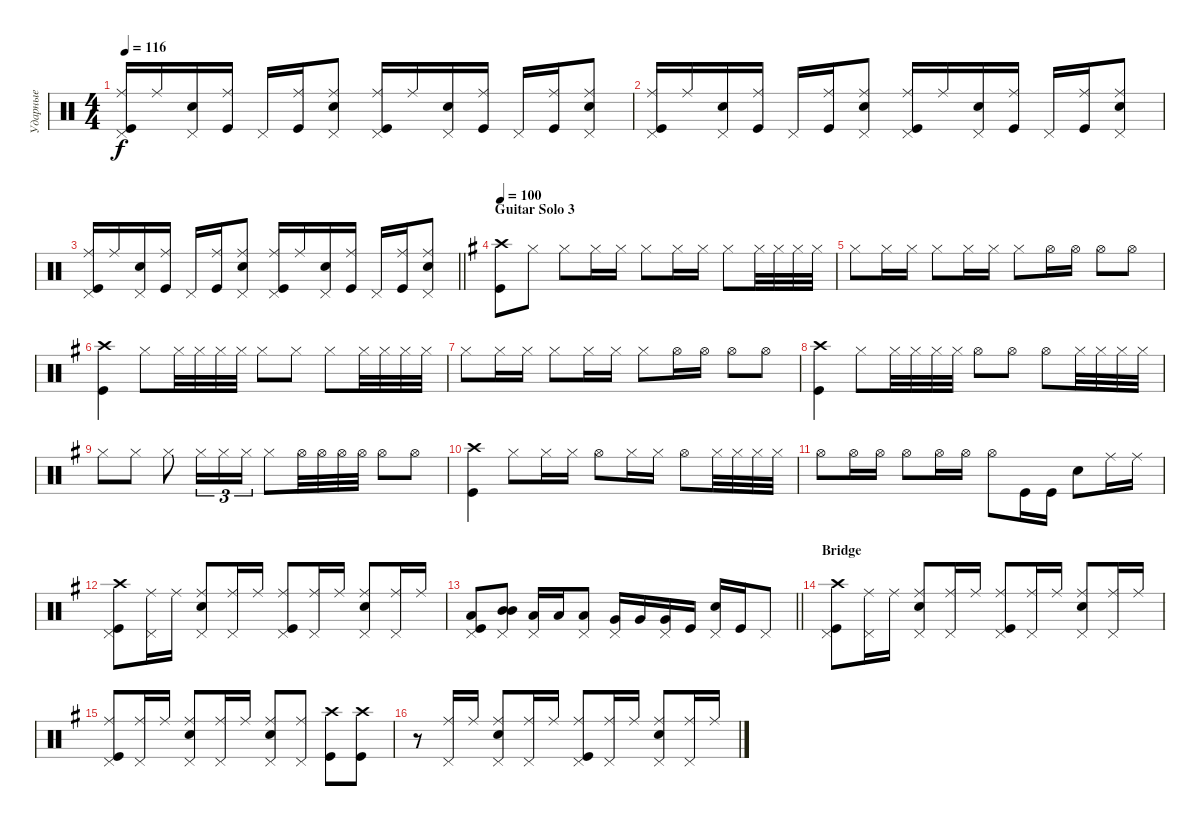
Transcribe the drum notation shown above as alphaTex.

\track ("Ударные" "Ударные") {instrument percussion}
\staff {score}
\articulation defaults
\ts (4 4)
\tempo 116
\clef neutral
\ks aminor
("Kick (hit)" "Ride (middle)" "Pedal Hi-Hat (hit)").16{dy f} "Ride (middle)".16 ("Snare (hit) 2" "Pedal Hi-Hat (hit)").16 ("Kick (hit)" "Ride (middle)").16 "Pedal Hi-Hat (hit)".16 ("Ride (middle)" "Kick (hit)").16 ("Snare (hit) 2" "Ride (middle)" "Pedal Hi-Hat (hit)").8 ("Kick (hit)" "Ride (middle)" "Pedal Hi-Hat (hit)").16 "Ride (middle)".16 ("Snare (hit) 2" "Pedal Hi-Hat (hit)").16 ("Kick (hit)" "Ride (middle)").16 "Pedal Hi-Hat (hit)".16 ("Ride (middle)" "Kick (hit)").16 ("Ride (middle)" "Snare (hit) 2" "Pedal Hi-Hat (hit)").8 |
("Kick (hit)" "Ride (middle)" "Pedal Hi-Hat (hit)").16 "Ride (middle)".16 ("Snare (hit) 2" "Pedal Hi-Hat (hit)").16 ("Kick (hit)" "Ride (middle)").16 "Pedal Hi-Hat (hit)".16 ("Ride (middle)" "Kick (hit)").16 ("Snare (hit) 2" "Ride (middle)" "Pedal Hi-Hat (hit)").8 ("Kick (hit)" "Ride (middle)" "Pedal Hi-Hat (hit)").16 "Ride (middle)".16 ("Snare (hit) 2" "Pedal Hi-Hat (hit)").16 ("Kick (hit)" "Ride (middle)").16 "Pedal Hi-Hat (hit)".16 ("Ride (middle)" "Kick (hit)").16 ("Ride (middle)" "Snare (hit) 2" "Pedal Hi-Hat (hit)").8 |
\barLineRight lightlight
("Kick (hit)" "Ride (middle)" "Pedal Hi-Hat (hit)").16 "Ride (middle)".16 ("Snare (hit) 2" "Pedal Hi-Hat (hit)").16 ("Kick (hit)" "Ride (middle)").16 "Pedal Hi-Hat (hit)".16 ("Ride (middle)" "Kick (hit)").16 ("Snare (hit) 2" "Ride (middle)" "Pedal Hi-Hat (hit)").8 ("Kick (hit)" "Ride (middle)" "Pedal Hi-Hat (hit)").16 "Ride (middle)".16 ("Snare (hit) 2" "Pedal Hi-Hat (hit)").16 ("Kick (hit)" "Ride (middle)").16 "Pedal Hi-Hat (hit)".16 ("Ride (middle)" "Kick (hit)").16 ("Ride (middle)" "Snare (hit) 2" "Pedal Hi-Hat (hit)").8 |
\section ("" "Guitar Solo 3")
\tempo 100
\ks eminor
("Kick (hit)" "Crash high (hit)").8 "Hi-Hat (closed)".8 "Hi-Hat (closed)".8 "Hi-Hat (closed)".16 "Hi-Hat (closed)".16 "Hi-Hat (closed)".8 "Hi-Hat (closed)".16 "Hi-Hat (closed)".16 "Hi-Hat (closed)".8 "Hi-Hat (closed)".32 "Hi-Hat (closed)".32 "Hi-Hat (closed)".32 "Hi-Hat (closed)".32 |
"Hi-Hat (closed)".8 "Hi-Hat (closed)".16 "Hi-Hat (closed)".16 "Hi-Hat (closed)".8 "Hi-Hat (closed)".16 "Hi-Hat (closed)".16 "Hi-Hat (closed)".8 "Hi-Hat (open)".16 "Hi-Hat (open)".16 "Hi-Hat (open)".8 "Hi-Hat (open)".8 |
("Kick (hit)" "Crash high (hit)").4 "Hi-Hat (closed)".8 "Hi-Hat (closed)".32 "Hi-Hat (closed)".32 "Hi-Hat (closed)".32 "Hi-Hat (closed)".32 "Hi-Hat (closed)".8 "Hi-Hat (closed)".8 "Hi-Hat (closed)".8 "Hi-Hat (closed)".32 "Hi-Hat (closed)".32 "Hi-Hat (closed)".32 "Hi-Hat (closed)".32 |
"Hi-Hat (closed)".8 "Hi-Hat (closed)".16 "Hi-Hat (closed)".16 "Hi-Hat (closed)".8 "Hi-Hat (closed)".16 "Hi-Hat (closed)".16 "Hi-Hat (closed)".8 "Hi-Hat (open)".16 "Hi-Hat (open)".16 "Hi-Hat (open)".8 "Hi-Hat (open)".8 |
("Kick (hit)" "Crash high (hit)").4 "Hi-Hat (closed)".8 "Hi-Hat (closed)".32 "Hi-Hat (closed)".32 "Hi-Hat (closed)".32 "Hi-Hat (closed)".32 "Hi-Hat (open)".8 "Hi-Hat (open)".8 "Hi-Hat (open)".8 "Hi-Hat (closed)".32 "Hi-Hat (closed)".32 "Hi-Hat (closed)".32 "Hi-Hat (closed)".32 |
"Hi-Hat (closed)".8 "Hi-Hat (closed)".8 "Hi-Hat (closed)".8 "Hi-Hat (closed)".16{tu (3 2)} "Hi-Hat (closed)".16{tu (3 2)} "Hi-Hat (closed)".16{tu (3 2)} "Hi-Hat (closed)".8 "Hi-Hat (open)".32 "Hi-Hat (open)".32 "Hi-Hat (open)".32 "Hi-Hat (open)".32 "Hi-Hat (open)".8 "Hi-Hat (open)".8 |
("Kick (hit)" "Crash high (hit)").4 "Hi-Hat (closed)".8 "Hi-Hat (closed)".16 "Hi-Hat (closed)".16 "Hi-Hat (open)".8 "Hi-Hat (closed)".16 "Hi-Hat (closed)".16 "Hi-Hat (open)".8 "Hi-Hat (closed)".32 "Hi-Hat (closed)".32 "Hi-Hat (closed)".32 "Hi-Hat (closed)".32 |
"Hi-Hat (open)".8 "Hi-Hat (open)".16 "Hi-Hat (open)".16 "Hi-Hat (open)".8 "Hi-Hat (open)".16 "Hi-Hat (open)".16 "Hi-Hat (open)".8 "Kick (hit)".16 "Kick (hit)".16 "Snare (hit) 2".8{bd 240} "Ride (middle)".16 "Ride (middle)".16 |
("Kick (hit)" "Crash high (hit)" "Pedal Hi-Hat (hit)").8 ("Ride (middle)" "Pedal Hi-Hat (hit)").16 "Ride (middle)".16 ("Ride (middle)" "Snare (hit) 2" "Pedal Hi-Hat (hit)").8 ("Ride (middle)" "Pedal Hi-Hat (hit)").16 "Ride (middle)".16 ("Ride (middle)" "Kick (hit)" "Pedal Hi-Hat (hit)").8 ("Ride (middle)" "Pedal Hi-Hat (hit)").16 "Ride (middle)".16 ("Ride (middle)" "Snare (hit) 2" "Pedal Hi-Hat (hit)").8 ("Ride (middle)" "Pedal Hi-Hat (hit)").16 "Ride (middle)".16 |
\barLineRight lightlight
("Kick (hit)" "Low Floor Tom (hit)" "Pedal Hi-Hat (hit)").8 ("Pedal Hi-Hat (hit)" "Mid Tom (hit)" "Mid Tom (hit)").8{bd 480} ("Pedal Hi-Hat (hit)" "Low Tom (hit)").16 "Low Tom (hit)".16 ("Pedal Hi-Hat (hit)" "Low Tom (hit)").8 ("Pedal Hi-Hat (hit)" "Very Low Tom (hit)").16 "Very Low Tom (hit)".16 ("Very Low Tom (hit)" "Pedal Hi-Hat (hit)").16 "Kick (hit)".16 ("Snare (hit) 2" "Pedal Hi-Hat (hit)").16 "Kick (hit)".16 "Pedal Hi-Hat (hit)".8 |
\section ("" "Bridge")
("Kick (hit)" "Crash high (hit)" "Pedal Hi-Hat (hit)").8 ("Ride (middle)" "Pedal Hi-Hat (hit)").16 "Ride (middle)".16 ("Snare (hit) 2" "Pedal Hi-Hat (hit)" "Ride (middle)").8 ("Ride (middle)" "Pedal Hi-Hat (hit)").16 "Ride (middle)".16 ("Ride (middle)" "Kick (hit)" "Pedal Hi-Hat (hit)").8 ("Ride (middle)" "Pedal Hi-Hat (hit)").16 "Ride (middle)".16 ("Ride (middle)" "Snare (hit) 2" "Pedal Hi-Hat (hit)").8 ("Ride (middle)" "Pedal Hi-Hat (hit)").16 "Ride (middle)".16 |
("Kick (hit)" "Ride (middle)" "Pedal Hi-Hat (hit)").8 ("Ride (middle)" "Pedal Hi-Hat (hit)").16 "Ride (middle)".16 ("Ride (middle)" "Snare (hit) 2" "Pedal Hi-Hat (hit)").8 ("Ride (middle)" "Pedal Hi-Hat (hit)").16 "Ride (middle)".16 ("Snare (hit) 2" "Ride (middle)" "Pedal Hi-Hat (hit)").8 ("Ride (middle)" "Pedal Hi-Hat (hit)").8 ("Kick (hit)" "Crash high (hit)").8 ("Crash high (hit)" "Kick (hit)").8 |
r.8 ("Ride (middle)" "Pedal Hi-Hat (hit)").16 "Ride (middle)".16 ("Snare (hit) 2" "Pedal Hi-Hat (hit)" "Ride (middle)").8 ("Ride (middle)" "Pedal Hi-Hat (hit)").16 "Ride (middle)".16 ("Ride (middle)" "Kick (hit)" "Pedal Hi-Hat (hit)").8 ("Ride (middle)" "Pedal Hi-Hat (hit)").16 "Ride (middle)".16 ("Ride (middle)" "Snare (hit) 2" "Pedal Hi-Hat (hit)").8 ("Ride (middle)" "Pedal Hi-Hat (hit)").16 "Ride (middle)".16
